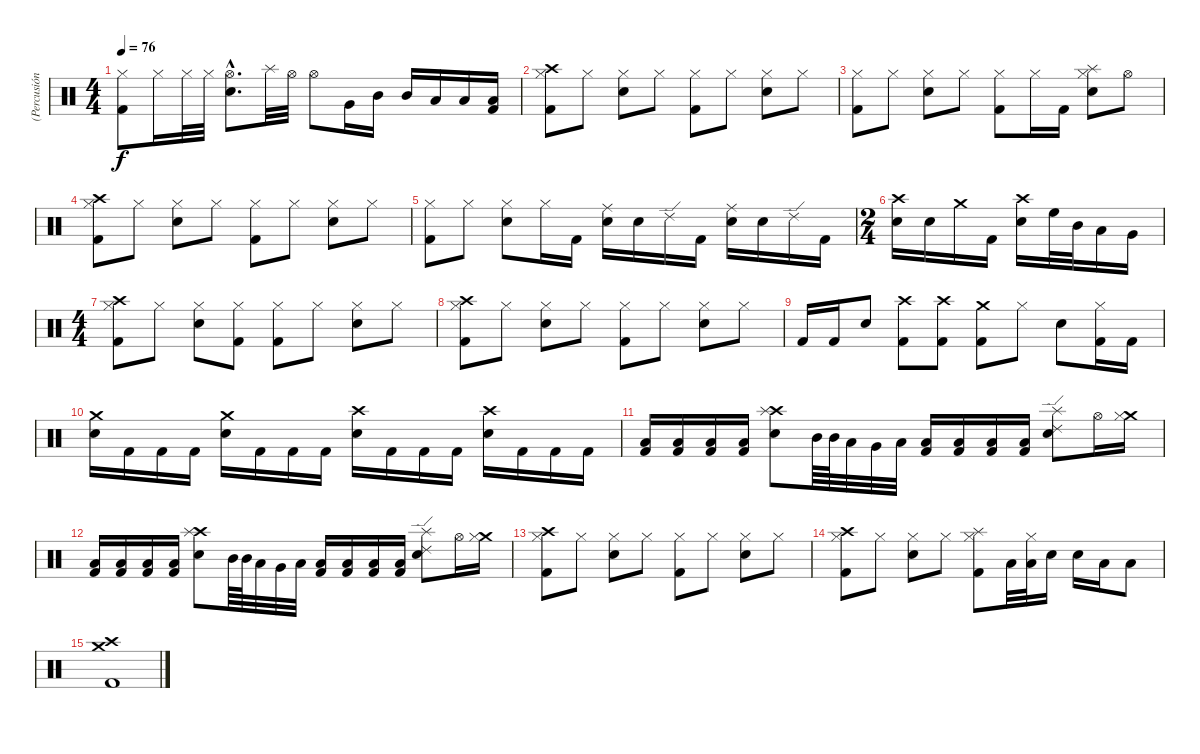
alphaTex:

\track ("(Percusión)" "(Percusión") {instrument percussion}
\staff {score}
\articulation defaults
\ts (4 4)
\tempo 76
\clef neutral
\ks c
("Hi-Hat (closed)" "Kick (hit) 2").8{dy f} "Hi-Hat (closed)".16 "Hi-Hat (closed)".32 "Hi-Hat (closed)".32 ("Hi-Hat (open)"{hac} "Snare (hit) 2"{hac}).8{d} "Splash (hit)".32 "Hi-Hat (open)".32 "Hi-Hat (open)".8 "Very Low Tom (hit)".16 "Mid Tom (hit)".16 "Mid Tom (hit)".16 "Low Tom (hit)".16 "Low Floor Tom (hit)".16 ("Low Floor Tom (hit)" "Kick (hit) 2").16 |
("Hi-Hat (closed)" "Crash high (hit)" "Kick (hit) 2").8 "Hi-Hat (closed)".8 ("Hi-Hat (closed)" "Snare (hit) 2").8 "Hi-Hat (closed)".8 ("Hi-Hat (closed)" "Kick (hit) 2").8 "Hi-Hat (closed)".8 ("Hi-Hat (closed)" "Snare (hit) 2").8 "Hi-Hat (closed)".8 |
("Hi-Hat (closed)" "Kick (hit) 2").8 "Hi-Hat (closed)".8 ("Hi-Hat (closed)" "Snare (hit) 2").8 "Hi-Hat (closed)".8 ("Hi-Hat (closed)" "Kick (hit) 2").8 "Hi-Hat (closed)".16 "Kick (hit) 2".16 ("Hi-Hat (closed)" "Splash (hit)" "Snare (hit) 2").8 "Hi-Hat (open)".8 |
("Hi-Hat (closed)" "Crash high (hit)" "Kick (hit) 2").8 "Hi-Hat (closed)".8 ("Hi-Hat (closed)" "Snare (hit) 2").8 "Hi-Hat (closed)".8 ("Hi-Hat (closed)" "Kick (hit) 2").8 "Hi-Hat (closed)".8 ("Hi-Hat (closed)" "Snare (hit) 2").8 "Hi-Hat (closed)".8 |
("Hi-Hat (closed)" "Kick (hit) 2").8 "Hi-Hat (closed)".8 ("Hi-Hat (closed)" "Snare (hit) 2").8 "Hi-Hat (closed)".16 "Kick (hit) 2".16 ("Ride (middle)" "Snare (hit) 2").16 "Snare (hit) 2".16 "Ride (edge) 2".16 "Kick (hit) 2".16 ("Ride (middle)" "Snare (hit) 2").16 "Snare (hit) 2".16 "Ride (edge) 2".16 "Kick (hit) 2".16 |
\ts (2 4)
("Crash high (hit)" "Snare (hit) 2").16 "Snare (hit) 2".16 "Crash medium (hit)".16 "Kick (hit) 2".16 ("Crash high (hit)" "Snare (hit) 2").16 "High Floor Tom (hit)".32 "Mid Tom (hit)".32 "Low Tom (hit)".16 "Very Low Tom (hit)".16 |
\ts (4 4)
("Hi-Hat (closed)" "Crash high (hit)" "Kick (hit) 2").8 "Hi-Hat (closed)".8 ("Hi-Hat (closed)" "Snare (hit) 2").8 ("Hi-Hat (closed)" "Kick (hit) 2").8 ("Hi-Hat (closed)" "Kick (hit) 2").8 "Hi-Hat (closed)".8 ("Hi-Hat (closed)" "Snare (hit) 2").8 "Hi-Hat (closed)".8 |
("Hi-Hat (closed)" "Crash high (hit)" "Kick (hit) 2").8 "Hi-Hat (closed)".8 ("Hi-Hat (closed)" "Snare (hit) 2").8 "Hi-Hat (closed)".8 ("Hi-Hat (closed)" "Kick (hit) 2").8 "Hi-Hat (closed)".8 ("Hi-Hat (closed)" "Snare (hit) 2").8 "Hi-Hat (closed)".8 |
"Kick (hit) 2".16 "Kick (hit) 2".16 "Snare (hit) 2".8 ("Crash high (hit)" "Kick (hit) 2").8 ("Crash high (hit)" "Kick (hit) 2").8 ("Crash medium (hit)" "Kick (hit) 2").8 "Hi-Hat (closed)".8 "Snare (hit) 2".8 ("Hi-Hat (closed)" "Kick (hit) 2").16 "Kick (hit) 2".16 |
("Crash medium (hit)" "Snare (hit) 2").16 "Kick (hit) 2".16 "Kick (hit) 2".16 "Kick (hit) 2".16 ("Crash medium (hit)" "Snare (hit) 2").16 "Kick (hit) 2".16 "Kick (hit) 2".16 "Kick (hit) 2".16 ("Crash high (hit)" "Snare (hit) 2").16 "Kick (hit) 2".16 "Kick (hit) 2".16 "Kick (hit) 2".16 ("Crash high (hit)" "Snare (hit) 2").16 "Kick (hit) 2".16 "Kick (hit) 2".16 "Kick (hit) 2".16 |
("Low Floor Tom (hit)" "Kick (hit) 2").16 ("Low Floor Tom (hit)" "Kick (hit) 2").16 ("Low Floor Tom (hit)" "Kick (hit) 2").16 ("Low Floor Tom (hit)" "Kick (hit) 2").16 ("Crash high (hit)" "Splash (hit)" "Snare (hit) 2").8 "Mid Tom (hit)".64 "Mid Tom (hit)".64 "Low Tom (hit)".32 "Very Low Tom (hit)".32 "Low Floor Tom (hit)".32 ("Low Floor Tom (hit)" "Kick (hit) 2").16 ("Low Floor Tom (hit)" "Kick (hit) 2").16 ("Low Floor Tom (hit)" "Kick (hit) 2").16 ("Low Floor Tom (hit)" "Kick (hit) 2").16 ("Ride (edge) 2" "Splash (hit)" "Snare (hit) 2").8 "Hi-Hat (open)".16 ("Crash medium (hit)" "Hi-Hat (closed)").16 |
("Low Floor Tom (hit)" "Kick (hit) 2").16 ("Low Floor Tom (hit)" "Kick (hit) 2").16 ("Low Floor Tom (hit)" "Kick (hit) 2").16 ("Low Floor Tom (hit)" "Kick (hit) 2").16 ("Crash high (hit)" "Splash (hit)" "Snare (hit) 2").8 "Mid Tom (hit)".64 "Mid Tom (hit)".64 "Low Tom (hit)".32 "Very Low Tom (hit)".32 "Low Floor Tom (hit)".32 ("Low Floor Tom (hit)" "Kick (hit) 2").16 ("Low Floor Tom (hit)" "Kick (hit) 2").16 ("Low Floor Tom (hit)" "Kick (hit) 2").16 ("Low Floor Tom (hit)" "Kick (hit) 2").16 ("Ride (edge) 2" "Splash (hit)" "Snare (hit) 2").8 "Hi-Hat (open)".16 ("Crash medium (hit)" "Hi-Hat (closed)").16 |
("Hi-Hat (closed)" "Crash high (hit)" "Kick (hit) 2").8 "Hi-Hat (closed)".8 ("Hi-Hat (closed)" "Snare (hit) 2").8 "Hi-Hat (closed)".8 ("Hi-Hat (closed)" "Kick (hit) 2").8 "Hi-Hat (closed)".8 ("Hi-Hat (closed)" "Snare (hit) 2").8 "Hi-Hat (closed)".8 |
("Hi-Hat (closed)" "Crash high (hit)" "Kick (hit) 2").8 "Hi-Hat (closed)".8 ("Hi-Hat (closed)" "Snare (hit) 2").8 "Hi-Hat (closed)".8 ("Hi-Hat (closed)" "Splash (hit)" "Kick (hit) 2").8 "Low Floor Tom (hit)".32 ("Hi-Hat (closed)" "Low Floor Tom (hit)").32 "Snare (hit) 2".16 "Snare (hit) 2".16 "Low Tom (hit)".16 "Low Floor Tom (hit)".8 |
("Crash medium (hit)" "Crash high (hit)" "Kick (hit) 2").1
